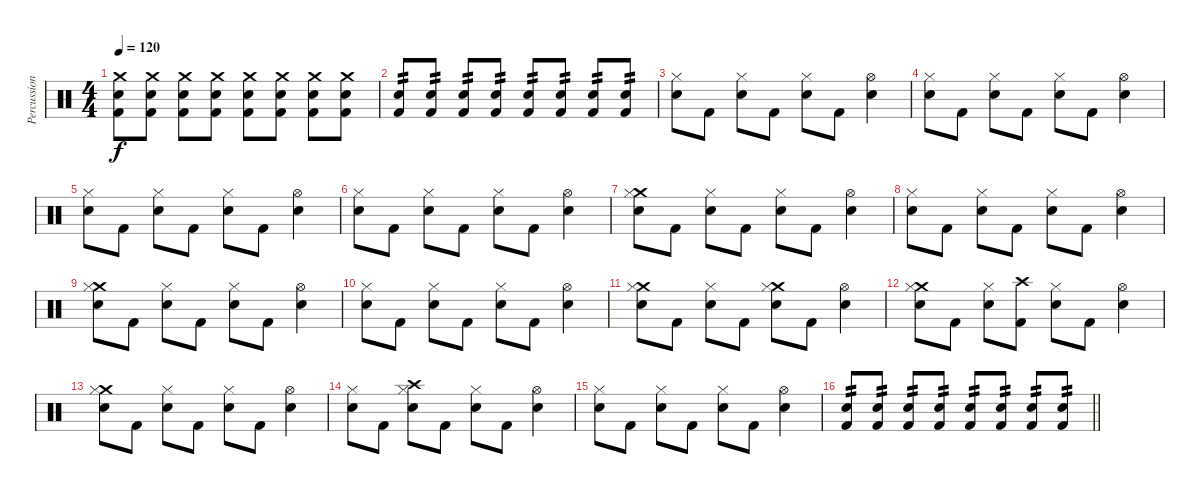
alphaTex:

\track ("Percussion" "Percussion") {instrument percussion}
\staff {score}
\articulation defaults
\ts (4 4)
\tempo 120
\clef neutral
\ks c
("Crash medium (hit)" "Snare (hit) 2" "Kick (hit) 2").8{dy f} ("Crash medium (hit)" "Snare (hit) 2" "Kick (hit) 2").8 ("Crash medium (hit)" "Snare (hit) 2" "Kick (hit) 2").8 ("Crash medium (hit)" "Snare (hit) 2" "Kick (hit) 2").8 ("Crash medium (hit)" "Snare (hit) 2" "Kick (hit) 2").8 ("Crash medium (hit)" "Snare (hit) 2" "Kick (hit) 2").8 ("Crash medium (hit)" "Snare (hit) 2" "Kick (hit) 2").8 ("Crash medium (hit)" "Snare (hit) 2" "Kick (hit) 2").8 |
("Snare (hit) 2" "Kick (hit) 2").8{tp 2} ("Snare (hit) 2" "Kick (hit) 2").8{tp 2} ("Snare (hit) 2" "Kick (hit) 2").8{tp 2} ("Snare (hit) 2" "Kick (hit) 2").8{tp 2} ("Snare (hit) 2" "Kick (hit) 2").8{tp 2} ("Snare (hit) 2" "Kick (hit) 2").8{tp 2} ("Snare (hit) 2" "Kick (hit) 2").8{tp 2} ("Snare (hit) 2" "Kick (hit) 2").8{tp 2} |
("Hi-Hat (closed)" "Snare (hit) 2").8 "Kick (hit) 2".8 ("Hi-Hat (closed)" "Snare (hit) 2").8 "Kick (hit) 2".8 ("Hi-Hat (closed)" "Snare (hit) 2").8 "Kick (hit) 2".8 ("Hi-Hat (open)" "Snare (hit) 2").4 |
("Hi-Hat (closed)" "Snare (hit) 2").8 "Kick (hit) 2".8 ("Hi-Hat (closed)" "Snare (hit) 2").8 "Kick (hit) 2".8 ("Hi-Hat (closed)" "Snare (hit) 2").8 "Kick (hit) 2".8 ("Hi-Hat (open)" "Snare (hit) 2").4 |
("Hi-Hat (closed)" "Snare (hit) 2").8 "Kick (hit) 2".8 ("Hi-Hat (closed)" "Snare (hit) 2").8 "Kick (hit) 2".8 ("Hi-Hat (closed)" "Snare (hit) 2").8 "Kick (hit) 2".8 ("Hi-Hat (open)" "Snare (hit) 2").4 |
("Hi-Hat (closed)" "Snare (hit) 2").8 "Kick (hit) 2".8 ("Hi-Hat (closed)" "Snare (hit) 2").8 "Kick (hit) 2".8 ("Hi-Hat (closed)" "Snare (hit) 2").8 "Kick (hit) 2".8 ("Hi-Hat (open)" "Snare (hit) 2").4 |
("Crash medium (hit)" "Hi-Hat (closed)" "Snare (hit) 2").8 "Kick (hit) 2".8 ("Hi-Hat (closed)" "Snare (hit) 2").8 "Kick (hit) 2".8 ("Hi-Hat (closed)" "Snare (hit) 2").8 "Kick (hit) 2".8 ("Hi-Hat (open)" "Snare (hit) 2").4 |
("Hi-Hat (closed)" "Snare (hit) 2").8 "Kick (hit) 2".8 ("Hi-Hat (closed)" "Snare (hit) 2").8 "Kick (hit) 2".8 ("Hi-Hat (closed)" "Snare (hit) 2").8 "Kick (hit) 2".8 ("Hi-Hat (open)" "Snare (hit) 2").4 |
("Crash medium (hit)" "Hi-Hat (closed)" "Snare (hit) 2").8 "Kick (hit) 2".8 ("Hi-Hat (closed)" "Snare (hit) 2").8 "Kick (hit) 2".8 ("Hi-Hat (closed)" "Snare (hit) 2").8 "Kick (hit) 2".8 ("Hi-Hat (open)" "Snare (hit) 2").4 |
("Hi-Hat (closed)" "Snare (hit) 2").8 "Kick (hit) 2".8 ("Hi-Hat (closed)" "Snare (hit) 2").8 "Kick (hit) 2".8 ("Hi-Hat (closed)" "Snare (hit) 2").8 "Kick (hit) 2".8 ("Hi-Hat (open)" "Snare (hit) 2").4 |
("Crash medium (hit)" "Hi-Hat (closed)" "Snare (hit) 2").8 "Kick (hit) 2".8 ("Hi-Hat (closed)" "Snare (hit) 2").8 "Kick (hit) 2".8 ("Crash medium (hit)" "Hi-Hat (closed)" "Snare (hit) 2").8 "Kick (hit) 2".8 ("Hi-Hat (open)" "Snare (hit) 2").4 |
("Crash medium (hit)" "Hi-Hat (closed)" "Snare (hit) 2").8 "Kick (hit) 2".8 ("Hi-Hat (closed)" "Snare (hit) 2").8 ("Crash high (hit)" "Kick (hit) 2").8 ("Hi-Hat (closed)" "Snare (hit) 2").8 "Kick (hit) 2".8 ("Hi-Hat (open)" "Snare (hit) 2").4 |
("Crash medium (hit)" "Hi-Hat (closed)" "Snare (hit) 2").8 "Kick (hit) 2".8 ("Hi-Hat (closed)" "Snare (hit) 2").8 "Kick (hit) 2".8 ("Hi-Hat (closed)" "Snare (hit) 2").8 "Kick (hit) 2".8 ("Hi-Hat (open)" "Snare (hit) 2").4 |
("Hi-Hat (closed)" "Snare (hit) 2").8 "Kick (hit) 2".8 ("Crash high (hit)" "Hi-Hat (closed)" "Snare (hit) 2").8 "Kick (hit) 2".8 ("Hi-Hat (closed)" "Snare (hit) 2").8 "Kick (hit) 2".8 ("Hi-Hat (open)" "Snare (hit) 2").4 |
("Hi-Hat (closed)" "Snare (hit) 2").8 "Kick (hit) 2".8 ("Hi-Hat (closed)" "Snare (hit) 2").8 "Kick (hit) 2".8 ("Hi-Hat (closed)" "Snare (hit) 2").8 "Kick (hit) 2".8 ("Hi-Hat (open)" "Snare (hit) 2").4 |
\barLineRight lightlight
("Snare (hit) 2" "Kick (hit) 2").8{tp 2} ("Snare (hit) 2" "Kick (hit) 2").8{tp 2} ("Snare (hit) 2" "Kick (hit) 2").8{tp 2} ("Snare (hit) 2" "Kick (hit) 2").8{tp 2} ("Snare (hit) 2" "Kick (hit) 2").8{tp 2} ("Snare (hit) 2" "Kick (hit) 2").8{tp 2} ("Snare (hit) 2" "Kick (hit) 2").8{tp 2} ("Snare (hit) 2" "Kick (hit) 2").8{tp 2}
